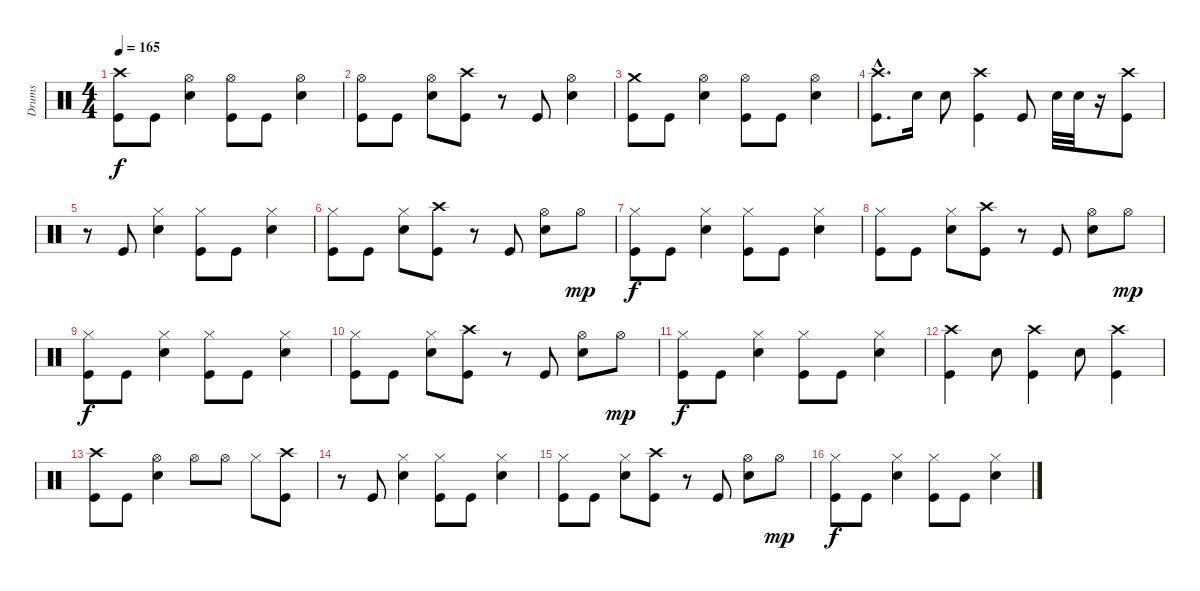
\track ("Drums" "Drums") {instrument percussion}
\staff {score}
\articulation defaults
\ts (4 4)
\tempo 165
\clef neutral
\ks c
("Crash high (hit)" "Kick (hit)").8{dy f} "Kick (hit)".8 ("Hi-Hat (open)" "Snare (hit) 2").4 ("Hi-Hat (open)" "Kick (hit)").8 "Kick (hit)".8 ("Hi-Hat (open)" "Snare (hit) 2").4 |
("Hi-Hat (open)" "Kick (hit)").8 "Kick (hit)".8 ("Hi-Hat (open)" "Snare (hit) 2").8 ("Crash high (hit)" "Kick (hit)").8 r.8 "Kick (hit)".8 ("Hi-Hat (open)" "Snare (hit) 2").4 |
("Crash medium (hit)" "Kick (hit)").8 "Kick (hit)".8 ("Hi-Hat (open)" "Snare (hit) 2").4 ("Hi-Hat (open)" "Kick (hit)").8 "Kick (hit)".8 ("Hi-Hat (open)" "Snare (hit) 2").4 |
("Crash high (hit)"{hac} "Kick (hit)"{hac}).8{d} "Snare (hit) 2".16 "Snare (hit) 2".8 ("Crash high (hit)" "Kick (hit)").4 "Kick (hit)".8 "Snare (hit) 2".32 "Snare (hit) 2".32 r.16 ("Crash high (hit)" "Kick (hit)").8 |
r.8 "Kick (hit)".8 ("Hi-Hat (closed)" "Snare (hit) 2").4 ("Hi-Hat (closed)" "Kick (hit)").8 "Kick (hit)".8 ("Hi-Hat (closed)" "Snare (hit) 2").4 |
("Hi-Hat (closed)" "Kick (hit)").8 "Kick (hit)".8 ("Hi-Hat (closed)" "Snare (hit) 2").8 ("Crash high (hit)" "Kick (hit)").8 r.8 "Kick (hit)".8 ("Hi-Hat (open)" "Snare (hit) 2").8 "Hi-Hat (open)".8{dy mp} |
("Hi-Hat (closed)" "Kick (hit)").8{dy f} "Kick (hit)".8 ("Hi-Hat (closed)" "Snare (hit) 2").4 ("Hi-Hat (closed)" "Kick (hit)").8 "Kick (hit)".8 ("Hi-Hat (closed)" "Snare (hit) 2").4 |
("Hi-Hat (closed)" "Kick (hit)").8 "Kick (hit)".8 ("Hi-Hat (closed)" "Snare (hit) 2").8 ("Crash high (hit)" "Kick (hit)").8 r.8 "Kick (hit)".8 ("Hi-Hat (open)" "Snare (hit) 2").8 "Hi-Hat (open)".8{dy mp} |
("Hi-Hat (closed)" "Kick (hit)").8{dy f} "Kick (hit)".8 ("Hi-Hat (closed)" "Snare (hit) 2").4 ("Hi-Hat (closed)" "Kick (hit)").8 "Kick (hit)".8 ("Hi-Hat (closed)" "Snare (hit) 2").4 |
("Hi-Hat (closed)" "Kick (hit)").8 "Kick (hit)".8 ("Hi-Hat (closed)" "Snare (hit) 2").8 ("Crash high (hit)" "Kick (hit)").8 r.8 "Kick (hit)".8 ("Hi-Hat (open)" "Snare (hit) 2").8 "Hi-Hat (open)".8{dy mp} |
("Hi-Hat (closed)" "Kick (hit)").8{dy f} "Kick (hit)".8 ("Hi-Hat (closed)" "Snare (hit) 2").4 ("Hi-Hat (closed)" "Kick (hit)").8 "Kick (hit)".8 ("Hi-Hat (closed)" "Snare (hit) 2").4 |
("Crash high (hit)" "Kick (hit)").4 "Snare (hit) 2".8 ("Crash high (hit)" "Kick (hit)").4 "Snare (hit) 2".8 ("Crash high (hit)" "Kick (hit)").4 |
("Crash high (hit)" "Kick (hit)").8 "Kick (hit)".8 ("Hi-Hat (open)" "Snare (hit) 2").4 "Hi-Hat (open)".8 "Hi-Hat (open)".8 "Hi-Hat (closed)".8 ("Crash high (hit)" "Kick (hit)").8 |
r.8 "Kick (hit)".8 ("Hi-Hat (closed)" "Snare (hit) 2").4 ("Hi-Hat (closed)" "Kick (hit)").8 "Kick (hit)".8 ("Hi-Hat (closed)" "Snare (hit) 2").4 |
("Hi-Hat (closed)" "Kick (hit)").8 "Kick (hit)".8 ("Hi-Hat (closed)" "Snare (hit) 2").8 ("Crash high (hit)" "Kick (hit)").8 r.8 "Kick (hit)".8 ("Hi-Hat (open)" "Snare (hit) 2").8 "Hi-Hat (open)".8{dy mp} |
("Hi-Hat (closed)" "Kick (hit)").8{dy f} "Kick (hit)".8 ("Hi-Hat (closed)" "Snare (hit) 2").4 ("Hi-Hat (closed)" "Kick (hit)").8 "Kick (hit)".8 ("Hi-Hat (closed)" "Snare (hit) 2").4
